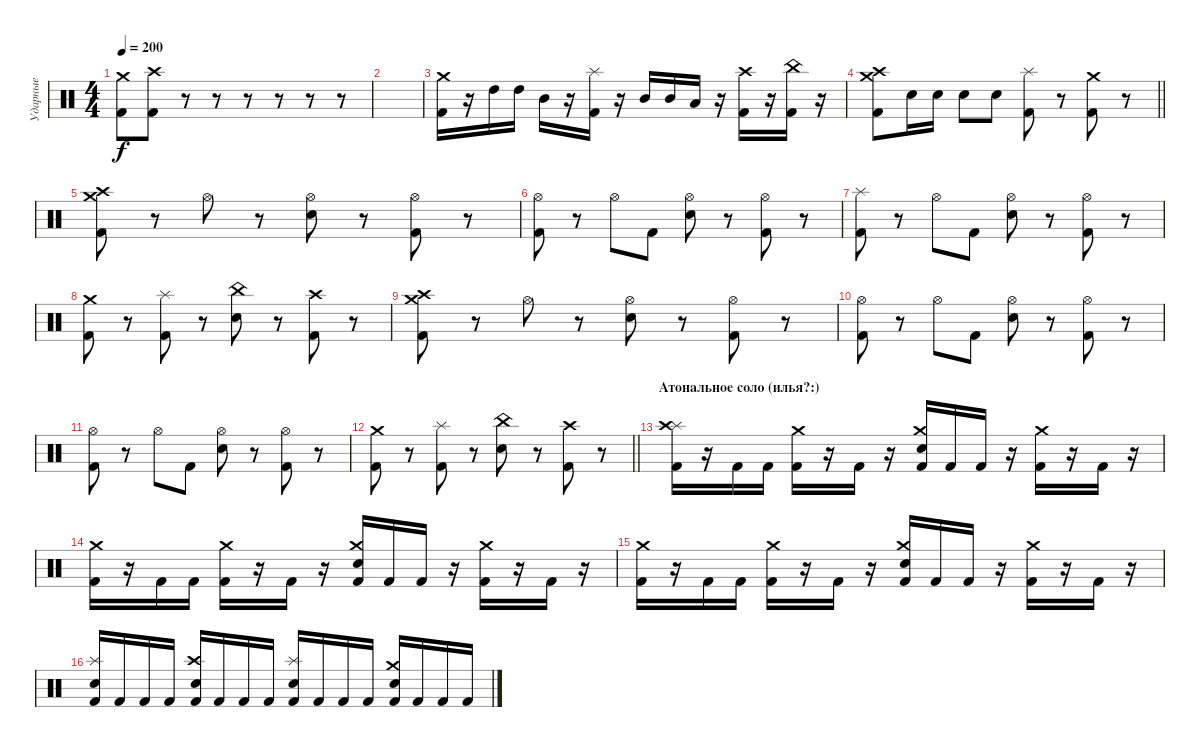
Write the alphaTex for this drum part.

\track ("Ударные" "Ударные") {instrument percussion}
\staff {score}
\articulation defaults
\ts (4 4)
\tempo 200
\clef neutral
\ks c
("Kick (hit) 2" "Crash medium (hit)").8{dy f} ("Kick (hit) 2" "Crash high (hit)").8 r.8 r.8 r.8 r.8 r.8 r.8 |
|
("Kick (hit) 2" "Crash medium (hit)").16 r.16 "High Tom (hit)".16 "High Tom (hit)".16 "Mid Tom (hit)".16 r.16 ("Kick (hit) 2" "Splash (hit)").16 r.16 "Mid Tom (hit)".16 "Mid Tom (hit)".16 "Low Tom (hit)".16 r.16 ("Kick (hit) 2" "Crash high (hit)").16 r.16 ("Kick (hit) 2" "China (hit)").16 r.16 |
\barLineRight lightlight
("Kick (hit) 2" "Crash high (hit)" "Crash medium (hit)").8 "Electric Snare (hit)".16 "Electric Snare (hit)".16 "Electric Snare (hit)".8 "Electric Snare (hit)".8 ("Kick (hit) 2" "Splash (hit)").8 r.8 ("Kick (hit) 2" "Crash medium (hit)").8 r.8 |
\section ("" "")
("Kick (hit) 2" "Crash high (hit)" "Crash medium (hit)").8 r.8 "Hi-Hat (open)".8 r.8 ("Electric Snare (hit)" "Hi-Hat (open)").8 r.8 ("Kick (hit) 2" "Hi-Hat (open)").8 r.8 |
("Kick (hit) 2" "Hi-Hat (open)").8 r.8 "Hi-Hat (open)".8 "Kick (hit) 2".8 ("Electric Snare (hit)" "Hi-Hat (open)").8 r.8 ("Kick (hit) 2" "Hi-Hat (open)").8 r.8 |
("Kick (hit) 2" "Splash (hit)").8 r.8 "Hi-Hat (open)".8 "Kick (hit) 2".8 ("Electric Snare (hit)" "Hi-Hat (open)").8 r.8 ("Kick (hit) 2" "Hi-Hat (open)").8 r.8 |
("Kick (hit) 2" "Crash medium (hit)").8 r.8 ("Kick (hit) 2" "Splash (hit)").8 r.8 ("Electric Snare (hit)" "China (hit)").8 r.8 ("Kick (hit) 2" "Crash high (hit)").8 r.8 |
("Kick (hit) 2" "Crash high (hit)" "Crash medium (hit)").8 r.8 "Hi-Hat (open)".8 r.8 ("Electric Snare (hit)" "Hi-Hat (open)").8 r.8 ("Kick (hit) 2" "Hi-Hat (open)").8 r.8 |
("Kick (hit) 2" "Hi-Hat (open)").8 r.8 "Hi-Hat (open)".8 "Kick (hit) 2".8 ("Electric Snare (hit)" "Hi-Hat (open)").8 r.8 ("Kick (hit) 2" "Hi-Hat (open)").8 r.8 |
("Kick (hit) 2" "Hi-Hat (open)").8 r.8 "Hi-Hat (open)".8 "Kick (hit) 2".8 ("Electric Snare (hit)" "Hi-Hat (open)").8 r.8 ("Kick (hit) 2" "Hi-Hat (open)").8 r.8 |
\barLineRight lightlight
("Kick (hit) 2" "Crash medium (hit)").8 r.8 ("Kick (hit) 2" "Splash (hit)").8 r.8 ("Electric Snare (hit)" "China (hit)").8 r.8 ("Kick (hit) 2" "Crash high (hit)").8 r.8 |
\section ("" "Атональное соло (илья?:)")
("Kick (hit) 2" "Splash (hit)" "Crash high (hit)").16 r.16 "Kick (hit) 2".16 "Kick (hit) 2".16 ("Kick (hit) 2" "Crash medium (hit)").16 r.16 "Kick (hit) 2".16 r.16 ("Kick (hit) 2" "Electric Snare (hit)" "Crash medium (hit)").16 "Kick (hit) 2".16 "Kick (hit) 2".16 r.16 ("Kick (hit) 2" "Crash medium (hit)").16 r.16 "Kick (hit) 2".16 r.16 |
("Kick (hit) 2" "Crash medium (hit)").16 r.16 "Kick (hit) 2".16 "Kick (hit) 2".16 ("Kick (hit) 2" "Crash medium (hit)").16 r.16 "Kick (hit) 2".16 r.16 ("Kick (hit) 2" "Electric Snare (hit)" "Crash medium (hit)").16 "Kick (hit) 2".16 "Kick (hit) 2".16 r.16 ("Kick (hit) 2" "Crash medium (hit)").16 r.16 "Kick (hit) 2".16 r.16 |
("Kick (hit) 2" "Crash medium (hit)").16 r.16 "Kick (hit) 2".16 "Kick (hit) 2".16 ("Kick (hit) 2" "Crash medium (hit)").16 r.16 "Kick (hit) 2".16 r.16 ("Kick (hit) 2" "Electric Snare (hit)" "Crash medium (hit)").16 "Kick (hit) 2".16 "Kick (hit) 2".16 r.16 ("Kick (hit) 2" "Crash medium (hit)").16 r.16 "Kick (hit) 2".16 r.16 |
("Kick (hit) 2" "Electric Snare (hit)" "Splash (hit)").16 "Kick (hit) 2".16 "Kick (hit) 2".16 "Kick (hit) 2".16 ("Kick (hit) 2" "Electric Snare (hit)" "Crash high (hit)").16 "Kick (hit) 2".16 "Kick (hit) 2".16 "Kick (hit) 2".16 ("Kick (hit) 2" "Electric Snare (hit)" "Splash (hit)").16 "Kick (hit) 2".16 "Kick (hit) 2".16 "Kick (hit) 2".16 ("Kick (hit) 2" "Electric Snare (hit)" "Crash medium (hit)").16 "Kick (hit) 2".16 "Kick (hit) 2".16 "Kick (hit) 2".16
